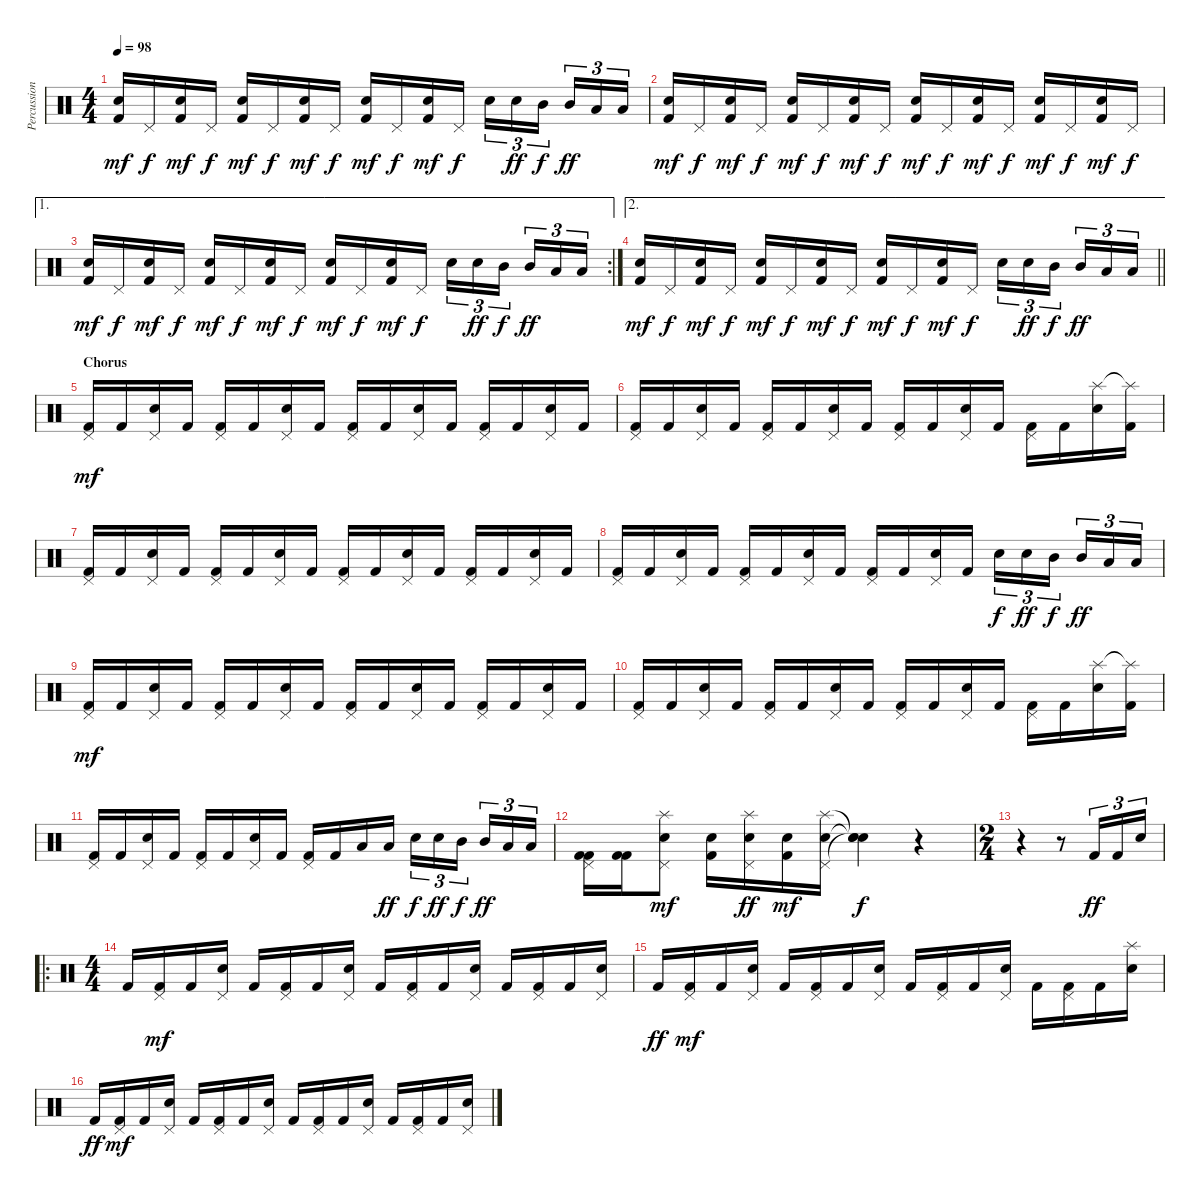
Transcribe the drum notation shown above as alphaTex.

\track ("Percussion" "Percussion") {instrument percussion}
\staff {score}
\articulation defaults
\ts (4 4)
\tempo 98
\clef neutral
\ks c
("Snare (hit) 2" "Kick (hit) 2").16{dy mf} "Pedal Hi-Hat (hit)".16{dy f} ("Snare (hit) 2" "Kick (hit) 2").16{dy mf} "Pedal Hi-Hat (hit)".16{dy f} ("Snare (hit) 2" "Kick (hit) 2").16{dy mf} "Pedal Hi-Hat (hit)".16{dy f} ("Snare (hit) 2" "Kick (hit) 2").16{dy mf} "Pedal Hi-Hat (hit)".16{dy f} ("Snare (hit) 2" "Kick (hit) 2").16{dy mf} "Pedal Hi-Hat (hit)".16{dy f} ("Snare (hit) 2" "Kick (hit) 2").16{dy mf} "Pedal Hi-Hat (hit)".16{dy f} "Snare (hit) 2".16{tu (3 2)} "Snare (hit) 2".16{tu (3 2) dy ff} "Mid Tom (hit)".16{tu (3 2) dy f beam splitsecondary} "Mid Tom (hit)".16{tu (3 2) dy ff} "Low Tom (hit)".16{tu (3 2)} "Low Tom (hit)".16{tu (3 2)} |
("Snare (hit) 2" "Kick (hit) 2").16{dy mf} "Pedal Hi-Hat (hit)".16{dy f} ("Snare (hit) 2" "Kick (hit) 2").16{dy mf} "Pedal Hi-Hat (hit)".16{dy f} ("Snare (hit) 2" "Kick (hit) 2").16{dy mf} "Pedal Hi-Hat (hit)".16{dy f} ("Snare (hit) 2" "Kick (hit) 2").16{dy mf} "Pedal Hi-Hat (hit)".16{dy f} ("Snare (hit) 2" "Kick (hit) 2").16{dy mf} "Pedal Hi-Hat (hit)".16{dy f} ("Snare (hit) 2" "Kick (hit) 2").16{dy mf} "Pedal Hi-Hat (hit)".16{dy f} ("Snare (hit) 2" "Kick (hit) 2").16{dy mf} "Pedal Hi-Hat (hit)".16{dy f} ("Snare (hit) 2" "Kick (hit) 2").16{dy mf} "Pedal Hi-Hat (hit)".16{dy f} |
\ae 1
\rc 2
("Snare (hit) 2" "Kick (hit) 2").16{dy mf} "Pedal Hi-Hat (hit)".16{dy f} ("Snare (hit) 2" "Kick (hit) 2").16{dy mf} "Pedal Hi-Hat (hit)".16{dy f} ("Snare (hit) 2" "Kick (hit) 2").16{dy mf} "Pedal Hi-Hat (hit)".16{dy f} ("Snare (hit) 2" "Kick (hit) 2").16{dy mf} "Pedal Hi-Hat (hit)".16{dy f} ("Snare (hit) 2" "Kick (hit) 2").16{dy mf} "Pedal Hi-Hat (hit)".16{dy f} ("Snare (hit) 2" "Kick (hit) 2").16{dy mf} "Pedal Hi-Hat (hit)".16{dy f} "Snare (hit) 2".16{tu (3 2)} "Snare (hit) 2".16{tu (3 2) dy ff} "Mid Tom (hit)".16{tu (3 2) dy f beam splitsecondary} "Mid Tom (hit)".16{tu (3 2) dy ff} "Low Tom (hit)".16{tu (3 2)} "Low Tom (hit)".16{tu (3 2)} |
\ae 2
\barLineRight lightlight
("Snare (hit) 2" "Kick (hit) 2").16{dy mf} "Pedal Hi-Hat (hit)".16{dy f} ("Snare (hit) 2" "Kick (hit) 2").16{dy mf} "Pedal Hi-Hat (hit)".16{dy f} ("Snare (hit) 2" "Kick (hit) 2").16{dy mf} "Pedal Hi-Hat (hit)".16{dy f} ("Snare (hit) 2" "Kick (hit) 2").16{dy mf} "Pedal Hi-Hat (hit)".16{dy f} ("Snare (hit) 2" "Kick (hit) 2").16{dy mf} "Pedal Hi-Hat (hit)".16{dy f} ("Snare (hit) 2" "Kick (hit) 2").16{dy mf} "Pedal Hi-Hat (hit)".16{dy f} "Snare (hit) 2".16{tu (3 2)} "Snare (hit) 2".16{tu (3 2) dy ff} "Mid Tom (hit)".16{tu (3 2) dy f beam splitsecondary} "Mid Tom (hit)".16{tu (3 2) dy ff} "Low Tom (hit)".16{tu (3 2)} "Low Tom (hit)".16{tu (3 2)} |
\section ("" "Chorus")
("Pedal Hi-Hat (hit)" "Kick (hit) 2").16{dy mf} "Kick (hit) 2".16 ("Pedal Hi-Hat (hit)" "Snare (hit) 2").16 "Kick (hit) 2".16 ("Pedal Hi-Hat (hit)" "Kick (hit) 2").16 "Kick (hit) 2".16 ("Pedal Hi-Hat (hit)" "Snare (hit) 2").16 "Kick (hit) 2".16 ("Pedal Hi-Hat (hit)" "Kick (hit) 2").16 "Kick (hit) 2".16 ("Pedal Hi-Hat (hit)" "Snare (hit) 2").16 "Kick (hit) 2".16 ("Pedal Hi-Hat (hit)" "Kick (hit) 2").16 "Kick (hit) 2".16 ("Pedal Hi-Hat (hit)" "Snare (hit) 2").16 "Kick (hit) 2".16 |
("Pedal Hi-Hat (hit)" "Kick (hit) 2").16 "Kick (hit) 2".16 ("Pedal Hi-Hat (hit)" "Snare (hit) 2").16 "Kick (hit) 2".16 ("Pedal Hi-Hat (hit)" "Kick (hit) 2").16 "Kick (hit) 2".16 ("Pedal Hi-Hat (hit)" "Snare (hit) 2").16 "Kick (hit) 2".16 ("Pedal Hi-Hat (hit)" "Kick (hit) 2").16 "Kick (hit) 2".16 ("Pedal Hi-Hat (hit)" "Snare (hit) 2").16 "Kick (hit) 2".16 ("Pedal Hi-Hat (hit)" "Kick (hit) 2").16 "Kick (hit) 2".16 ("Splash (hit)" "Snare (hit) 2").16 ("Splash (hit)"{t} "Kick (hit) 2").16 |
("Pedal Hi-Hat (hit)" "Kick (hit) 2").16 "Kick (hit) 2".16 ("Pedal Hi-Hat (hit)" "Snare (hit) 2").16 "Kick (hit) 2".16 ("Pedal Hi-Hat (hit)" "Kick (hit) 2").16 "Kick (hit) 2".16 ("Pedal Hi-Hat (hit)" "Snare (hit) 2").16 "Kick (hit) 2".16 ("Pedal Hi-Hat (hit)" "Kick (hit) 2").16 "Kick (hit) 2".16 ("Pedal Hi-Hat (hit)" "Snare (hit) 2").16 "Kick (hit) 2".16 ("Pedal Hi-Hat (hit)" "Kick (hit) 2").16 "Kick (hit) 2".16 ("Pedal Hi-Hat (hit)" "Snare (hit) 2").16 "Kick (hit) 2".16 |
("Pedal Hi-Hat (hit)" "Kick (hit) 2").16 "Kick (hit) 2".16 ("Pedal Hi-Hat (hit)" "Snare (hit) 2").16 "Kick (hit) 2".16 ("Pedal Hi-Hat (hit)" "Kick (hit) 2").16 "Kick (hit) 2".16 ("Pedal Hi-Hat (hit)" "Snare (hit) 2").16 "Kick (hit) 2".16 ("Pedal Hi-Hat (hit)" "Kick (hit) 2").16 "Kick (hit) 2".16 ("Pedal Hi-Hat (hit)" "Snare (hit) 2").16 "Kick (hit) 2".16 "Snare (hit) 2".16{tu (3 2) dy f} "Snare (hit) 2".16{tu (3 2) dy ff} "Mid Tom (hit)".16{tu (3 2) dy f beam splitsecondary} "Mid Tom (hit)".16{tu (3 2) dy ff} "Low Tom (hit)".16{tu (3 2)} "Low Tom (hit)".16{tu (3 2)} |
("Pedal Hi-Hat (hit)" "Kick (hit) 2").16{dy mf} "Kick (hit) 2".16 ("Pedal Hi-Hat (hit)" "Snare (hit) 2").16 "Kick (hit) 2".16 ("Pedal Hi-Hat (hit)" "Kick (hit) 2").16 "Kick (hit) 2".16 ("Pedal Hi-Hat (hit)" "Snare (hit) 2").16 "Kick (hit) 2".16 ("Pedal Hi-Hat (hit)" "Kick (hit) 2").16 "Kick (hit) 2".16 ("Pedal Hi-Hat (hit)" "Snare (hit) 2").16 "Kick (hit) 2".16 ("Pedal Hi-Hat (hit)" "Kick (hit) 2").16 "Kick (hit) 2".16 ("Pedal Hi-Hat (hit)" "Snare (hit) 2").16 "Kick (hit) 2".16 |
("Pedal Hi-Hat (hit)" "Kick (hit) 2").16 "Kick (hit) 2".16 ("Pedal Hi-Hat (hit)" "Snare (hit) 2").16 "Kick (hit) 2".16 ("Pedal Hi-Hat (hit)" "Kick (hit) 2").16 "Kick (hit) 2".16 ("Pedal Hi-Hat (hit)" "Snare (hit) 2").16 "Kick (hit) 2".16 ("Pedal Hi-Hat (hit)" "Kick (hit) 2").16 "Kick (hit) 2".16 ("Pedal Hi-Hat (hit)" "Snare (hit) 2").16 "Kick (hit) 2".16 ("Pedal Hi-Hat (hit)" "Kick (hit) 2").16 "Kick (hit) 2".16 ("Splash (hit)" "Snare (hit) 2").16 ("Splash (hit)"{t} "Kick (hit) 2").16 |
("Pedal Hi-Hat (hit)" "Kick (hit) 2").16 "Kick (hit) 2".16 ("Pedal Hi-Hat (hit)" "Snare (hit) 2").16 "Kick (hit) 2".16 ("Pedal Hi-Hat (hit)" "Kick (hit) 2").16 "Kick (hit) 2".16 ("Pedal Hi-Hat (hit)" "Snare (hit) 2").16 "Kick (hit) 2".16 ("Pedal Hi-Hat (hit)" "Kick (hit) 2").16 "Kick (hit) 2".16 "Low Tom (hit)".16 "Low Tom (hit)".16{dy ff} "Snare (hit) 2".16{tu (3 2) dy f} "Snare (hit) 2".16{tu (3 2) dy ff} "Mid Tom (hit)".16{tu (3 2) dy f beam splitsecondary} "Mid Tom (hit)".16{tu (3 2) dy ff} "Low Tom (hit)".16{tu (3 2)} "Low Tom (hit)".16{tu (3 2)} |
("Pedal Hi-Hat (hit)" "Kick (hit) 2" "Kick (hit) 2").16 ("Kick (hit) 2" "Kick (hit) 2").16 ("Splash (hit)" "Pedal Hi-Hat (hit)" "Snare (hit) 2").8{dy mf} ("Snare (hit) 2" "Kick (hit) 2").16 ("Splash (hit)" "Pedal Hi-Hat (hit)" "Snare (hit) 2").16{dy ff} ("Snare (hit) 2" "Kick (hit) 2").16{dy mf} ("Splash (hit)" "Pedal Hi-Hat (hit)" "Snare (hit) 2").16 ("Snare (hit)"{t} "Snare (hit)"{t} "Snare (hit)"{t}).4{dy f} r.4 |
\ts (2 4)
r.4 r.8 "Kick (hit) 2".16{tu (3 2) dy ff} "Kick (hit) 2".16{tu (3 2)} "Snare (hit) 2".16{tu (3 2)} |
\ro
\ts (4 4)
"Kick (hit) 2".16 ("Pedal Hi-Hat (hit)" "Kick (hit) 2").16{dy mf} "Kick (hit) 2".16 ("Pedal Hi-Hat (hit)" "Snare (hit) 2").16 "Kick (hit) 2".16 ("Pedal Hi-Hat (hit)" "Kick (hit) 2").16 "Kick (hit) 2".16 ("Pedal Hi-Hat (hit)" "Snare (hit) 2").16 "Kick (hit) 2".16 ("Pedal Hi-Hat (hit)" "Kick (hit) 2").16 "Kick (hit) 2".16 ("Pedal Hi-Hat (hit)" "Snare (hit) 2").16 "Kick (hit) 2".16 ("Pedal Hi-Hat (hit)" "Kick (hit) 2").16 "Kick (hit) 2".16 ("Pedal Hi-Hat (hit)" "Snare (hit) 2").16 |
"Kick (hit) 2".16{dy ff} ("Pedal Hi-Hat (hit)" "Kick (hit) 2").16{dy mf} "Kick (hit) 2".16 ("Pedal Hi-Hat (hit)" "Snare (hit) 2").16 "Kick (hit) 2".16 ("Pedal Hi-Hat (hit)" "Kick (hit) 2").16 "Kick (hit) 2".16 ("Pedal Hi-Hat (hit)" "Snare (hit) 2").16 "Kick (hit) 2".16 ("Pedal Hi-Hat (hit)" "Kick (hit) 2").16 "Kick (hit) 2".16 ("Pedal Hi-Hat (hit)" "Snare (hit) 2").16 "Kick (hit) 2".16 ("Pedal Hi-Hat (hit)" "Kick (hit) 2").16 "Kick (hit) 2".16 ("Splash (hit)" "Snare (hit) 2").16 |
"Kick (hit) 2".16{dy ff} ("Pedal Hi-Hat (hit)" "Kick (hit) 2").16{dy mf} "Kick (hit) 2".16 ("Pedal Hi-Hat (hit)" "Snare (hit) 2").16 "Kick (hit) 2".16 ("Pedal Hi-Hat (hit)" "Kick (hit) 2").16 "Kick (hit) 2".16 ("Pedal Hi-Hat (hit)" "Snare (hit) 2").16 "Kick (hit) 2".16 ("Pedal Hi-Hat (hit)" "Kick (hit) 2").16 "Kick (hit) 2".16 ("Pedal Hi-Hat (hit)" "Snare (hit) 2").16 "Kick (hit) 2".16 ("Pedal Hi-Hat (hit)" "Kick (hit) 2").16 "Kick (hit) 2".16 ("Pedal Hi-Hat (hit)" "Snare (hit) 2").16
